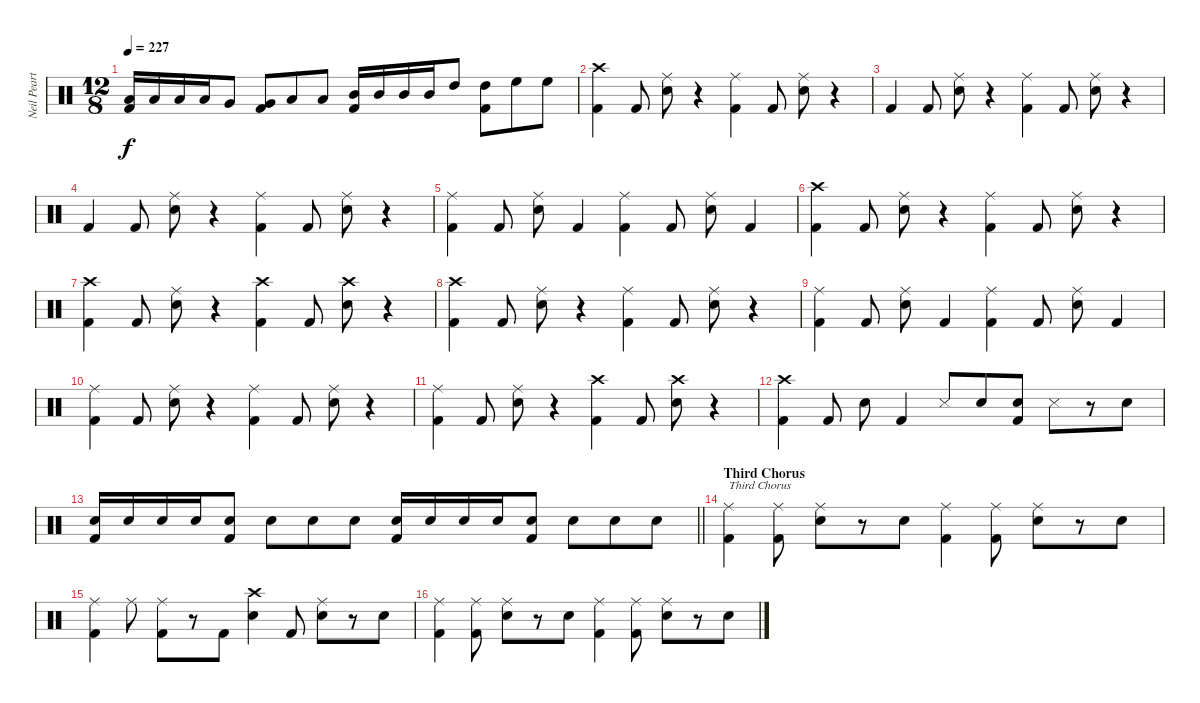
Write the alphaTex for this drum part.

\track ("Neil Peart" "Neil Peart") {instrument percussion}
\staff {score}
\articulation defaults
\ts (12 8)
\tempo 227
\clef neutral
\ks c
("Low Floor Tom (hit)" "Kick (hit) 2").16{dy f} "Low Floor Tom (hit)".16 "Low Floor Tom (hit)".16 "Low Floor Tom (hit)".16 "Very Low Tom (hit)".8 ("Very Low Tom (hit)" "Kick (hit) 2").8 "Low Tom (hit)".8 "Low Tom (hit)".8 ("Mid Tom (hit)" "Kick (hit) 2").16 "Mid Tom (hit)".16 "Mid Tom (hit)".16 "Mid Tom (hit)".16 "High Tom (hit)".8 ("High Tom (hit)" "Kick (hit) 2").8 "High Floor Tom (hit)".8 "High Floor Tom (hit)".8 |
("Crash high (hit)" "Kick (hit) 2").4 "Kick (hit) 2".8 ("Electric Snare (hit)" "Ride (middle)").8 r.4 ("Ride (middle)" "Kick (hit) 2").4 "Kick (hit) 2".8 ("Electric Snare (hit)" "Ride (middle)").8 r.4 |
"Kick (hit) 2".4 "Kick (hit) 2".8 ("Electric Snare (hit)" "Ride (middle)").8 r.4 ("Ride (middle)" "Kick (hit) 2").4 "Kick (hit) 2".8 ("Electric Snare (hit)" "Ride (middle)").8 r.4 |
"Kick (hit) 2".4 "Kick (hit) 2".8 ("Electric Snare (hit)" "Ride (middle)").8 r.4 ("Ride (middle)" "Kick (hit) 2").4 "Kick (hit) 2".8 ("Electric Snare (hit)" "Ride (middle)").8 r.4 |
("Ride (middle)" "Kick (hit) 2").4 "Kick (hit) 2".8 ("Electric Snare (hit)" "Ride (middle)").8 "Kick (hit) 2".4 ("Ride (middle)" "Kick (hit) 2").4 "Kick (hit) 2".8 ("Electric Snare (hit)" "Ride (middle)").8 "Kick (hit) 2".4 |
("Crash high (hit)" "Kick (hit) 2").4 "Kick (hit) 2".8 ("Electric Snare (hit)" "Ride (middle)").8 r.4 ("Ride (middle)" "Kick (hit) 2").4 "Kick (hit) 2".8 ("Electric Snare (hit)" "Ride (middle)").8 r.4 |
("Crash high (hit)" "Kick (hit) 2").4 "Kick (hit) 2".8 ("Electric Snare (hit)" "Ride (middle)").8 r.4 ("Crash high (hit)" "Kick (hit) 2").4 "Kick (hit) 2".8 ("Electric Snare (hit)" "Crash high (hit)").8 r.4 |
("Crash high (hit)" "Kick (hit) 2").4 "Kick (hit) 2".8 ("Electric Snare (hit)" "Ride (middle)").8 r.4 ("Ride (middle)" "Kick (hit) 2").4 "Kick (hit) 2".8 ("Electric Snare (hit)" "Ride (middle)").8 r.4 |
("Ride (middle)" "Kick (hit) 2").4 "Kick (hit) 2".8 ("Electric Snare (hit)" "Ride (middle)").8 "Kick (hit) 2".4 ("Ride (middle)" "Kick (hit) 2").4 "Kick (hit) 2".8 ("Electric Snare (hit)" "Ride (middle)").8 "Kick (hit) 2".4 |
("Ride (middle)" "Kick (hit) 2").4 "Kick (hit) 2".8 ("Electric Snare (hit)" "Ride (middle)").8 r.4 ("Ride (middle)" "Kick (hit) 2").4 "Kick (hit) 2".8 ("Electric Snare (hit)" "Ride (middle)").8 r.4 |
("Ride (middle)" "Kick (hit) 2").4 "Kick (hit) 2".8 ("Electric Snare (hit)" "Ride (middle)").8 r.4 ("Crash high (hit)" "Kick (hit) 2").4 "Kick (hit) 2".8 ("Electric Snare (hit)" "Crash high (hit)").8 r.4 |
("Crash high (hit)" "Kick (hit) 2").4 "Kick (hit) 2".8 "Electric Snare (hit)".8 "Kick (hit) 2".4 "Snare (side stick) 3".8 "Electric Snare (hit)".8 ("Electric Snare (hit)" "Kick (hit) 2").8 "Snare (side stick) 3".8 r.8 "Electric Snare (hit)".8 |
\barLineRight lightlight
("Electric Snare (hit)" "Kick (hit) 2").16 "Electric Snare (hit)".16 "Electric Snare (hit)".16 "Electric Snare (hit)".16 ("Electric Snare (hit)" "Kick (hit) 2").8 "Electric Snare (hit)".8 "Electric Snare (hit)".8 "Electric Snare (hit)".8 ("Electric Snare (hit)" "Kick (hit) 2").16 "Electric Snare (hit)".16 "Electric Snare (hit)".16 "Electric Snare (hit)".16 ("Electric Snare (hit)" "Kick (hit) 2").8 "Electric Snare (hit)".8 "Electric Snare (hit)".8 "Electric Snare (hit)".8 |
\section ("" "Third Chorus")
("Ride (middle)" "Kick (hit) 2").4{txt "Third Chorus"} ("Ride (middle)" "Kick (hit) 2").8 ("Electric Snare (hit)" "Ride (middle)").8 r.8 "Electric Snare (hit)".8 ("Ride (middle)" "Kick (hit) 2").4 ("Ride (middle)" "Kick (hit) 2").8 ("Electric Snare (hit)" "Ride (middle)").8 r.8 "Electric Snare (hit)".8 |
("Ride (middle)" "Kick (hit) 2").4 "Ride (middle)".8 ("Ride (middle)" "Kick (hit) 2").8 r.8 "Kick (hit) 2".8 ("Electric Snare (hit)" "Crash high (hit)").4 "Kick (hit) 2".8 ("Electric Snare (hit)" "Ride (middle)").8 r.8 "Electric Snare (hit)".8 |
("Ride (middle)" "Kick (hit) 2").4 ("Ride (middle)" "Kick (hit) 2").8 ("Electric Snare (hit)" "Ride (middle)").8 r.8 "Electric Snare (hit)".8 ("Ride (middle)" "Kick (hit) 2").4 ("Ride (middle)" "Kick (hit) 2").8 ("Electric Snare (hit)" "Ride (middle)").8 r.8 "Electric Snare (hit)".8
